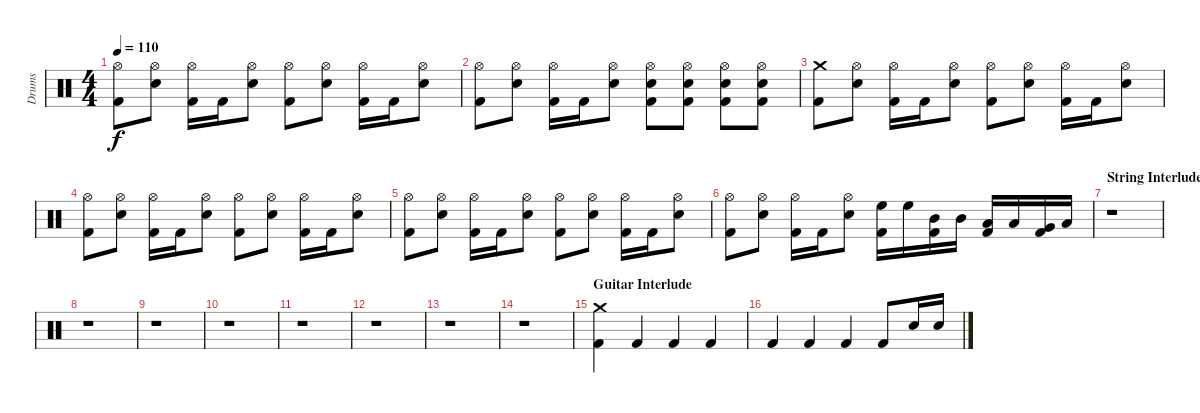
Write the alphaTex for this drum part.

\track ("Drums" "Drums") {instrument percussion}
\staff {score}
\articulation defaults
\ts (4 4)
\tempo 110
\clef neutral
\ks c
("Hi-Hat (open)" "Kick (hit) 2").8{dy f} ("Hi-Hat (open)" "Electric Snare (hit)").8 ("Hi-Hat (open)" "Kick (hit) 2").16 "Kick (hit) 2".16 ("Hi-Hat (open)" "Electric Snare (hit)").8 ("Hi-Hat (open)" "Kick (hit) 2").8 ("Hi-Hat (open)" "Electric Snare (hit)").8 ("Hi-Hat (open)" "Kick (hit) 2").16 "Kick (hit) 2".16 ("Hi-Hat (open)" "Electric Snare (hit)").8 |
("Hi-Hat (open)" "Kick (hit) 2").8 ("Hi-Hat (open)" "Electric Snare (hit)").8 ("Hi-Hat (open)" "Kick (hit) 2").16 "Kick (hit) 2".16 ("Hi-Hat (open)" "Electric Snare (hit)").8 ("Hi-Hat (open)" "Electric Snare (hit)" "Kick (hit) 2").8 ("Hi-Hat (open)" "Electric Snare (hit)" "Kick (hit) 2").8 ("Hi-Hat (open)" "Electric Snare (hit)" "Kick (hit) 2").8 ("Hi-Hat (open)" "Electric Snare (hit)" "Kick (hit) 2").8 |
("Crash medium (hit)" "Kick (hit) 2").8 ("Hi-Hat (open)" "Electric Snare (hit)").8 ("Hi-Hat (open)" "Kick (hit) 2").16 "Kick (hit) 2".16 ("Hi-Hat (open)" "Electric Snare (hit)").8 ("Hi-Hat (open)" "Kick (hit) 2").8 ("Hi-Hat (open)" "Electric Snare (hit)").8 ("Hi-Hat (open)" "Kick (hit) 2").16 "Kick (hit) 2".16 ("Hi-Hat (open)" "Electric Snare (hit)").8 |
("Hi-Hat (open)" "Kick (hit) 2").8 ("Hi-Hat (open)" "Electric Snare (hit)").8 ("Hi-Hat (open)" "Kick (hit) 2").16 "Kick (hit) 2".16 ("Hi-Hat (open)" "Electric Snare (hit)").8 ("Hi-Hat (open)" "Kick (hit) 2").8 ("Hi-Hat (open)" "Electric Snare (hit)").8 ("Hi-Hat (open)" "Kick (hit) 2").16 "Kick (hit) 2".16 ("Hi-Hat (open)" "Electric Snare (hit)").8 |
("Hi-Hat (open)" "Kick (hit) 2").8 ("Hi-Hat (open)" "Electric Snare (hit)").8 ("Hi-Hat (open)" "Kick (hit) 2").16 "Kick (hit) 2".16 ("Hi-Hat (open)" "Electric Snare (hit)").8 ("Hi-Hat (open)" "Kick (hit) 2").8 ("Hi-Hat (open)" "Electric Snare (hit)").8 ("Hi-Hat (open)" "Kick (hit) 2").16 "Kick (hit) 2".16 ("Hi-Hat (open)" "Electric Snare (hit)").8 |
("Hi-Hat (open)" "Kick (hit) 2").8 ("Hi-Hat (open)" "Electric Snare (hit)").8 ("Hi-Hat (open)" "Kick (hit) 2").16 "Kick (hit) 2".16 ("Hi-Hat (open)" "Electric Snare (hit)").8 ("High Floor Tom (hit)" "Kick (hit) 2").16 "High Floor Tom (hit)".16 ("Mid Tom (hit)" "Kick (hit) 2").16 "Mid Tom (hit)".16 ("Low Tom (hit)" "Kick (hit) 2").16 "Low Tom (hit)".16 ("Very Low Tom (hit)" "Kick (hit) 2").16 "Low Floor Tom (hit)".16 |
\section ("" "String Interlude")
r.1 |
r.1 |
r.1 |
r.1 |
r.1 |
r.1 |
r.1 |
r.1 |
\section ("" "Guitar Interlude")
("Crash medium (hit)" "Kick (hit) 2").4 "Kick (hit) 2".4 "Kick (hit) 2".4 "Kick (hit) 2".4 |
"Kick (hit) 2".4 "Kick (hit) 2".4 "Kick (hit) 2".4 "Kick (hit) 2".8 "Electric Snare (hit)".16 "Electric Snare (hit)".16
